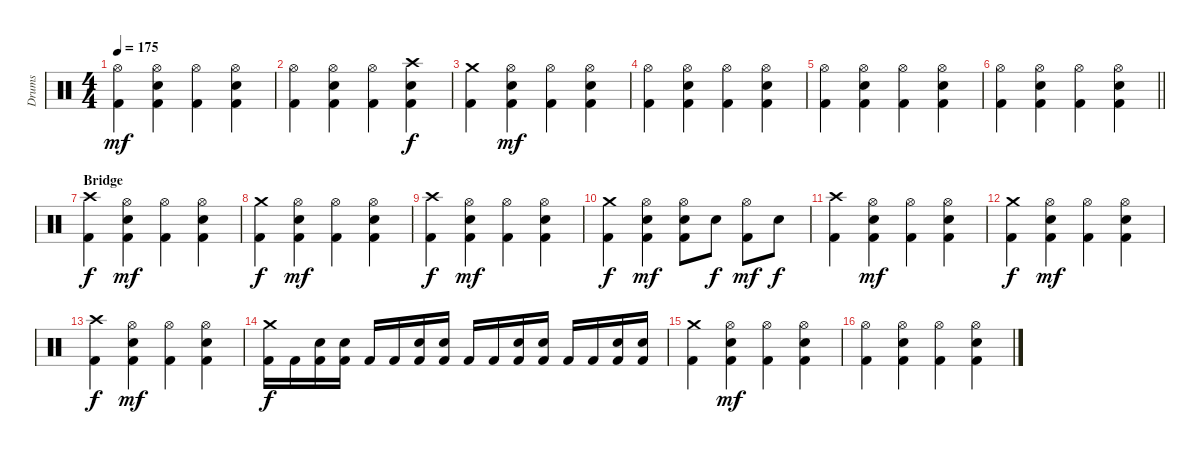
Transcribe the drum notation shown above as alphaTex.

\track ("Drums" "Drums") {instrument percussion}
\staff {score}
\articulation defaults
\ts (4 4)
\tempo 175
\clef neutral
\ks c
("Hi-Hat (open)" "Kick (hit) 2").4{dy mf} ("Hi-Hat (open)" "Electric Snare (hit)" "Kick (hit) 2").4 ("Hi-Hat (open)" "Kick (hit) 2").4 ("Hi-Hat (open)" "Electric Snare (hit)" "Kick (hit) 2").4 |
("Hi-Hat (open)" "Kick (hit) 2").4 ("Hi-Hat (open)" "Electric Snare (hit)" "Kick (hit) 2").4 ("Hi-Hat (open)" "Kick (hit) 2").4 ("Crash high (hit)" "Electric Snare (hit)" "Kick (hit) 2").4{dy f} |
("Crash medium (hit)" "Kick (hit) 2").4 ("Hi-Hat (open)" "Electric Snare (hit)" "Kick (hit) 2").4{dy mf} ("Hi-Hat (open)" "Kick (hit) 2").4 ("Hi-Hat (open)" "Electric Snare (hit)" "Kick (hit) 2").4 |
("Hi-Hat (open)" "Kick (hit) 2").4 ("Hi-Hat (open)" "Electric Snare (hit)" "Kick (hit) 2").4 ("Hi-Hat (open)" "Kick (hit) 2").4 ("Hi-Hat (open)" "Electric Snare (hit)" "Kick (hit) 2").4 |
("Hi-Hat (open)" "Kick (hit) 2").4 ("Hi-Hat (open)" "Electric Snare (hit)" "Kick (hit) 2").4 ("Hi-Hat (open)" "Kick (hit) 2").4 ("Hi-Hat (open)" "Electric Snare (hit)" "Kick (hit) 2").4 |
\barLineRight lightlight
("Hi-Hat (open)" "Kick (hit) 2").4 ("Hi-Hat (open)" "Electric Snare (hit)" "Kick (hit) 2").4 ("Hi-Hat (open)" "Kick (hit) 2").4 ("Hi-Hat (open)" "Electric Snare (hit)" "Kick (hit) 2").4 |
\section ("" "Bridge")
("Crash high (hit)" "Kick (hit) 2").4{dy f} ("Hi-Hat (open)" "Electric Snare (hit)" "Kick (hit) 2").4{dy mf} ("Hi-Hat (open)" "Kick (hit) 2").4 ("Hi-Hat (open)" "Electric Snare (hit)" "Kick (hit) 2").4 |
("Crash medium (hit)" "Kick (hit) 2").4{dy f} ("Hi-Hat (open)" "Electric Snare (hit)" "Kick (hit) 2").4{dy mf} ("Hi-Hat (open)" "Kick (hit) 2").4 ("Hi-Hat (open)" "Electric Snare (hit)" "Kick (hit) 2").4 |
("Crash high (hit)" "Kick (hit) 2").4{dy f} ("Hi-Hat (open)" "Electric Snare (hit)" "Kick (hit) 2").4{dy mf} ("Hi-Hat (open)" "Kick (hit) 2").4 ("Hi-Hat (open)" "Electric Snare (hit)" "Kick (hit) 2").4 |
("Crash medium (hit)" "Kick (hit) 2").4{dy f} ("Hi-Hat (open)" "Electric Snare (hit)" "Kick (hit) 2").4{dy mf} ("Hi-Hat (open)" "Electric Snare (hit)" "Kick (hit) 2").8 "Electric Snare (hit)".8{dy f} ("Hi-Hat (open)" "Kick (hit) 2").8{dy mf} "Electric Snare (hit)".8{dy f} |
("Crash high (hit)" "Kick (hit) 2").4 ("Hi-Hat (open)" "Electric Snare (hit)" "Kick (hit) 2").4{dy mf} ("Hi-Hat (open)" "Kick (hit) 2").4 ("Hi-Hat (open)" "Electric Snare (hit)" "Kick (hit) 2").4 |
("Crash medium (hit)" "Kick (hit) 2").4{dy f} ("Hi-Hat (open)" "Electric Snare (hit)" "Kick (hit) 2").4{dy mf} ("Hi-Hat (open)" "Kick (hit) 2").4 ("Hi-Hat (open)" "Electric Snare (hit)" "Kick (hit) 2").4 |
("Crash high (hit)" "Kick (hit) 2").4{dy f} ("Hi-Hat (open)" "Electric Snare (hit)" "Kick (hit) 2").4{dy mf} ("Hi-Hat (open)" "Kick (hit) 2").4 ("Hi-Hat (open)" "Electric Snare (hit)" "Kick (hit) 2").4 |
("Crash medium (hit)" "Kick (hit) 2").16{dy f} "Kick (hit) 2".16 ("Electric Snare (hit)" "Kick (hit) 2").16 ("Electric Snare (hit)" "Kick (hit) 2").16 "Kick (hit) 2".16 "Kick (hit) 2".16 ("Electric Snare (hit)" "Kick (hit) 2").16 ("Electric Snare (hit)" "Kick (hit) 2").16 "Kick (hit) 2".16 "Kick (hit) 2".16 ("Electric Snare (hit)" "Kick (hit) 2").16 ("Electric Snare (hit)" "Kick (hit) 2").16 "Kick (hit) 2".16 "Kick (hit) 2".16 ("Electric Snare (hit)" "Kick (hit) 2").16 ("Electric Snare (hit)" "Kick (hit) 2").16 |
("Crash medium (hit)" "Kick (hit) 2").4 ("Hi-Hat (open)" "Electric Snare (hit)" "Kick (hit) 2").4{dy mf} ("Hi-Hat (open)" "Kick (hit) 2").4 ("Hi-Hat (open)" "Electric Snare (hit)" "Kick (hit) 2").4 |
("Hi-Hat (open)" "Kick (hit) 2").4 ("Hi-Hat (open)" "Electric Snare (hit)" "Kick (hit) 2").4 ("Hi-Hat (open)" "Kick (hit) 2").4 ("Hi-Hat (open)" "Electric Snare (hit)" "Kick (hit) 2").4
